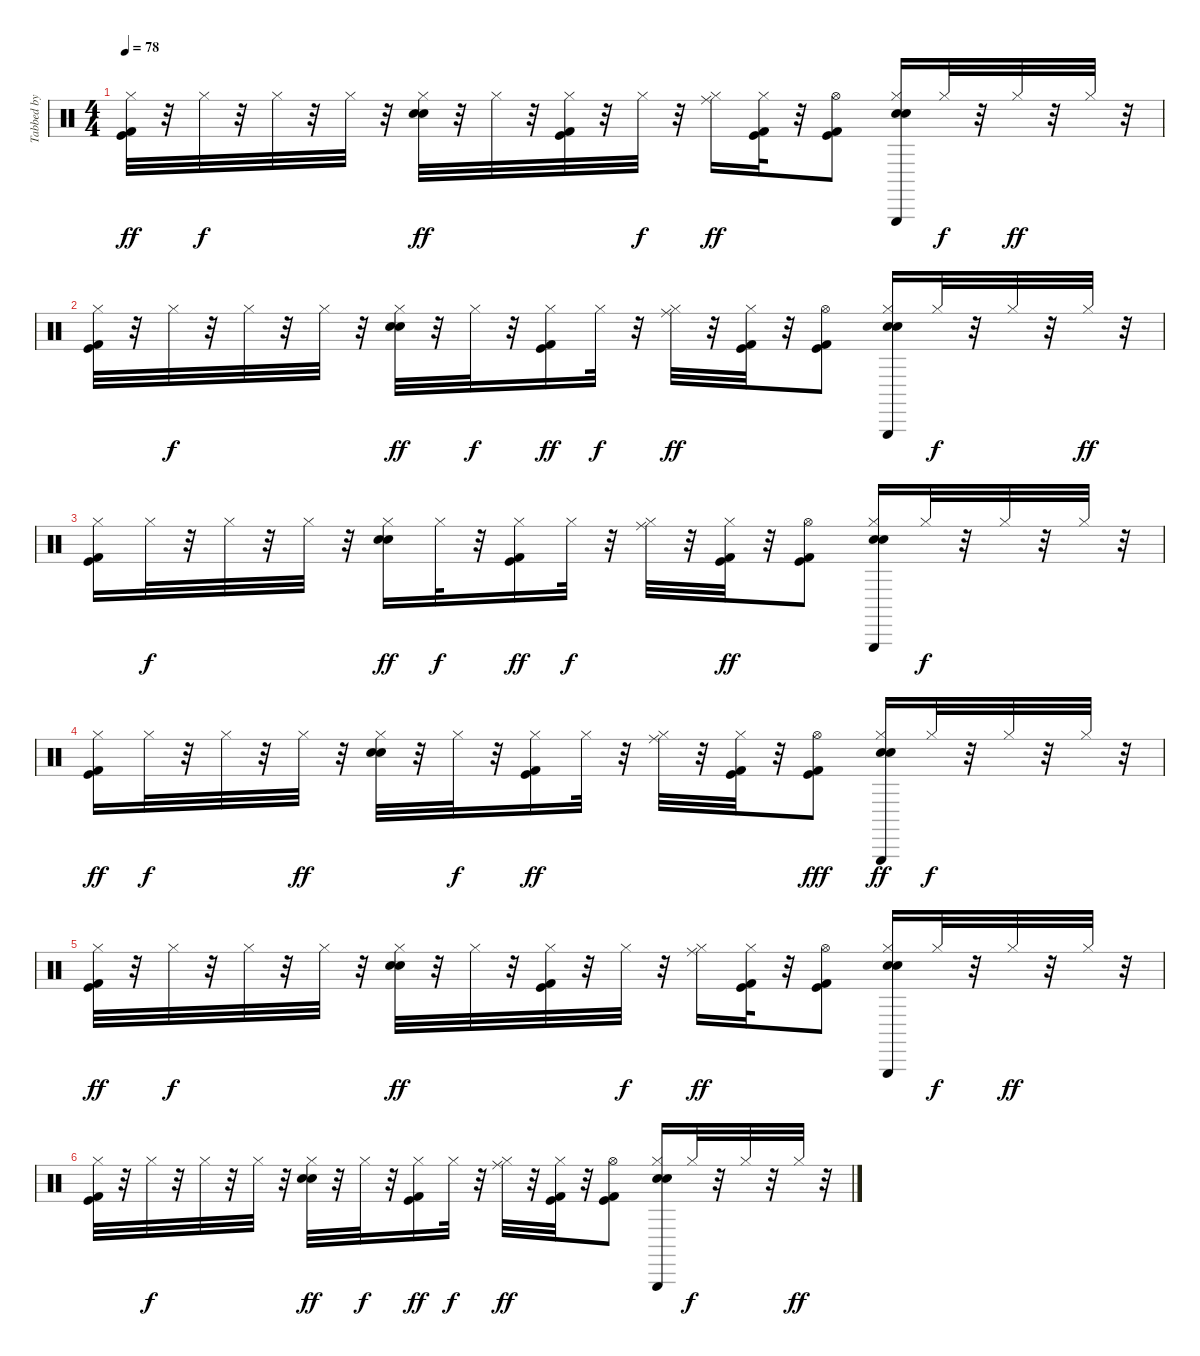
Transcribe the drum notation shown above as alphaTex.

\track ("Tabbed by Ade" "Tabbed by ") {instrument percussion}
\staff {score}
\articulation defaults
\ts (4 4)
\tempo 78
\clef neutral
\ks c
("Kick (hit) 2" "Hi-Hat (closed)" "Kick (hit)").32{dy ff} r.32 "Hi-Hat (closed)".32{dy f} r.32 "Hi-Hat (closed)".32 r.32 "Hi-Hat (closed)".32 r.32 ("Hi-Hat (closed)" "Snare (hit) 2" "Hand Clap (hit)").32{dy ff} r.32 "Hi-Hat (closed)".32 r.32 ("Hi-Hat (closed)" "Kick (hit) 2" "Kick (hit)").32 r.32 "Hi-Hat (closed)".32{dy f} r.32 ("Hi-Hat (closed)" "Ride (middle)").16{dy ff} ("Hi-Hat (closed)" "Kick (hit) 2" "Kick (hit)").32 r.32 ("Hi-Hat (open)" "Kick (hit) 2" "Kick (hit)").8 ("Hi-Hat (closed)" "Triangle (hit)" "Snare (hit) 2" "Hand Clap (hit)").16 "Hi-Hat (closed)".32{dy f} r.32 "Hi-Hat (closed)".32{dy ff} r.32 "Hi-Hat (closed)".32 r.32 |
("Hi-Hat (closed)" "Kick (hit) 2" "Kick (hit)").32 r.32 "Hi-Hat (closed)".32{dy f} r.32 "Hi-Hat (closed)".32 r.32 "Hi-Hat (closed)".32 r.32 ("Hi-Hat (closed)" "Snare (hit) 2" "Hand Clap (hit)").32{dy ff} r.32 "Hi-Hat (closed)".32{dy f} r.32 ("Hi-Hat (closed)" "Kick (hit) 2" "Kick (hit)").16{dy ff} "Hi-Hat (closed)".32{dy f} r.32 ("Hi-Hat (closed)" "Ride (middle)").32{dy ff} r.32 ("Hi-Hat (closed)" "Kick (hit) 2" "Kick (hit)").32 r.32 ("Hi-Hat (open)" "Kick (hit) 2" "Kick (hit)").8 ("Hi-Hat (closed)" "Triangle (hit)" "Snare (hit) 2" "Hand Clap (hit)").16 "Hi-Hat (closed)".32{dy f} r.32 "Hi-Hat (closed)".32 r.32 "Hi-Hat (closed)".32{dy ff} r.32 |
("Kick (hit) 2" "Kick (hit)" "Hi-Hat (closed)").16 "Hi-Hat (closed)".32{dy f} r.32 "Hi-Hat (closed)".32 r.32 "Hi-Hat (closed)".32 r.32 ("Hi-Hat (closed)" "Snare (hit) 2" "Hand Clap (hit)").16{dy ff} "Hi-Hat (closed)".32{dy f} r.32 ("Hi-Hat (closed)" "Kick (hit) 2" "Kick (hit)").16{dy ff} "Hi-Hat (closed)".32{dy f} r.32 ("Hi-Hat (closed)" "Ride (middle)").32 r.32 ("Hi-Hat (closed)" "Kick (hit) 2" "Kick (hit)").32{dy ff} r.32 ("Hi-Hat (open)" "Kick (hit) 2" "Kick (hit)").8 ("Hi-Hat (closed)" "Triangle (hit)" "Hand Clap (hit)" "Snare (hit) 2").16 "Hi-Hat (closed)".32{dy f} r.32 "Hi-Hat (closed)".32 r.32 "Hi-Hat (closed)".32 r.32 |
("Hi-Hat (closed)" "Kick (hit) 2" "Kick (hit)").16{dy ff} "Hi-Hat (closed)".32{dy f} r.32 "Hi-Hat (closed)".32 r.32 "Hi-Hat (closed)".32{dy ff} r.32 ("Hi-Hat (closed)" "Snare (hit) 2" "Hand Clap (hit)").32 r.32 "Hi-Hat (closed)".32{dy f} r.32 ("Hi-Hat (closed)" "Kick (hit) 2" "Kick (hit)").16{dy ff} "Hi-Hat (closed)".32 r.32 ("Hi-Hat (closed)" "Ride (middle)").32 r.32 ("Hi-Hat (closed)" "Kick (hit)" "Kick (hit) 2").32 r.32 ("Hi-Hat (open)" "Kick (hit) 2" "Kick (hit)").8{dy fff} ("Hi-Hat (closed)" "Triangle (hit)" "Snare (hit) 2" "Hand Clap (hit)").16{dy ff} "Hi-Hat (closed)".32{dy f} r.32 "Hi-Hat (closed)".32 r.32 "Hi-Hat (closed)".32 r.32 |
("Kick (hit) 2" "Hi-Hat (closed)" "Kick (hit)").32{dy ff} r.32 "Hi-Hat (closed)".32{dy f} r.32 "Hi-Hat (closed)".32 r.32 "Hi-Hat (closed)".32 r.32 ("Hi-Hat (closed)" "Snare (hit) 2" "Hand Clap (hit)").32{dy ff} r.32 "Hi-Hat (closed)".32 r.32 ("Hi-Hat (closed)" "Kick (hit) 2" "Kick (hit)").32 r.32 "Hi-Hat (closed)".32{dy f} r.32 ("Hi-Hat (closed)" "Ride (middle)").16{dy ff} ("Hi-Hat (closed)" "Kick (hit) 2" "Kick (hit)").32 r.32 ("Hi-Hat (open)" "Kick (hit) 2" "Kick (hit)").8 ("Hi-Hat (closed)" "Triangle (hit)" "Snare (hit) 2" "Hand Clap (hit)").16 "Hi-Hat (closed)".32{dy f} r.32 "Hi-Hat (closed)".32{dy ff} r.32 "Hi-Hat (closed)".32 r.32 |
("Hi-Hat (closed)" "Kick (hit) 2" "Kick (hit)").32 r.32 "Hi-Hat (closed)".32{dy f} r.32 "Hi-Hat (closed)".32 r.32 "Hi-Hat (closed)".32 r.32 ("Hi-Hat (closed)" "Snare (hit) 2" "Hand Clap (hit)").32{dy ff} r.32 "Hi-Hat (closed)".32{dy f} r.32 ("Hi-Hat (closed)" "Kick (hit) 2" "Kick (hit)").16{dy ff} "Hi-Hat (closed)".32{dy f} r.32 ("Hi-Hat (closed)" "Ride (middle)").32{dy ff} r.32 ("Hi-Hat (closed)" "Kick (hit) 2" "Kick (hit)").32 r.32 ("Hi-Hat (open)" "Kick (hit) 2" "Kick (hit)").8 ("Hi-Hat (closed)" "Triangle (hit)" "Snare (hit) 2" "Hand Clap (hit)").16 "Hi-Hat (closed)".32{dy f} r.32 "Hi-Hat (closed)".32 r.32 "Hi-Hat (closed)".32{dy ff} r.32
